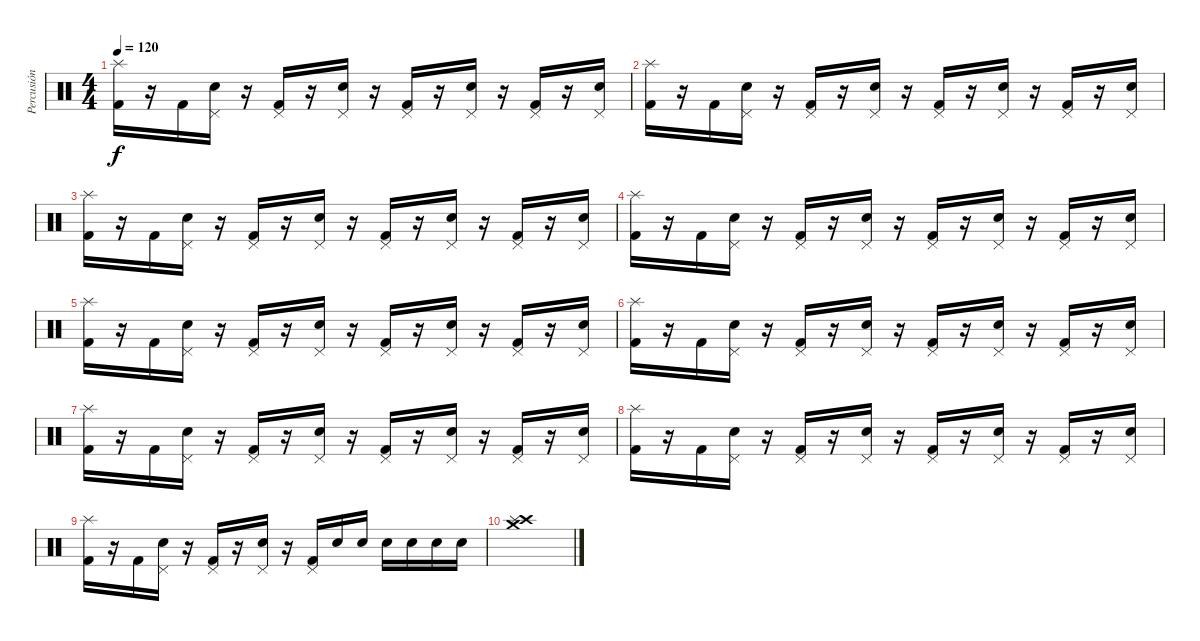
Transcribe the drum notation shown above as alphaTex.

\track ("Percusión" "Percusión") {instrument percussion}
\staff {score}
\articulation defaults
\ts (4 4)
\tempo 120
\clef neutral
\ks c
("Splash (hit)" "Kick (hit) 2").16{dy f} r.16 "Kick (hit) 2".16 ("Pedal Hi-Hat (hit)" "Snare (hit) 2").16 r.16 ("Pedal Hi-Hat (hit)" "Kick (hit) 2").16 r.16 ("Pedal Hi-Hat (hit)" "Snare (hit) 2").16 r.16 ("Pedal Hi-Hat (hit)" "Kick (hit) 2").16 r.16 ("Pedal Hi-Hat (hit)" "Snare (hit) 2").16 r.16 ("Pedal Hi-Hat (hit)" "Kick (hit) 2").16 r.16 ("Pedal Hi-Hat (hit)" "Snare (hit) 2").16 |
("Splash (hit)" "Kick (hit) 2").16 r.16 "Kick (hit) 2".16 ("Pedal Hi-Hat (hit)" "Snare (hit) 2").16 r.16 ("Pedal Hi-Hat (hit)" "Kick (hit) 2").16 r.16 ("Pedal Hi-Hat (hit)" "Snare (hit) 2").16 r.16 ("Pedal Hi-Hat (hit)" "Kick (hit) 2").16 r.16 ("Pedal Hi-Hat (hit)" "Snare (hit) 2").16 r.16 ("Pedal Hi-Hat (hit)" "Kick (hit) 2").16 r.16 ("Pedal Hi-Hat (hit)" "Snare (hit) 2").16 |
("Splash (hit)" "Kick (hit) 2").16 r.16 "Kick (hit) 2".16 ("Pedal Hi-Hat (hit)" "Snare (hit) 2").16 r.16 ("Pedal Hi-Hat (hit)" "Kick (hit) 2").16 r.16 ("Pedal Hi-Hat (hit)" "Snare (hit) 2").16 r.16 ("Pedal Hi-Hat (hit)" "Kick (hit) 2").16 r.16 ("Pedal Hi-Hat (hit)" "Snare (hit) 2").16 r.16 ("Pedal Hi-Hat (hit)" "Kick (hit) 2").16 r.16 ("Pedal Hi-Hat (hit)" "Snare (hit) 2").16 |
("Splash (hit)" "Kick (hit) 2").16 r.16 "Kick (hit) 2".16 ("Pedal Hi-Hat (hit)" "Snare (hit) 2").16 r.16 ("Pedal Hi-Hat (hit)" "Kick (hit) 2").16 r.16 ("Pedal Hi-Hat (hit)" "Snare (hit) 2").16 r.16 ("Pedal Hi-Hat (hit)" "Kick (hit) 2").16 r.16 ("Pedal Hi-Hat (hit)" "Snare (hit) 2").16 r.16 ("Pedal Hi-Hat (hit)" "Kick (hit) 2").16 r.16 ("Pedal Hi-Hat (hit)" "Snare (hit) 2").16 |
("Splash (hit)" "Kick (hit) 2").16 r.16 "Kick (hit) 2".16 ("Pedal Hi-Hat (hit)" "Snare (hit) 2").16 r.16 ("Pedal Hi-Hat (hit)" "Kick (hit) 2").16 r.16 ("Pedal Hi-Hat (hit)" "Snare (hit) 2").16 r.16 ("Pedal Hi-Hat (hit)" "Kick (hit) 2").16 r.16 ("Pedal Hi-Hat (hit)" "Snare (hit) 2").16 r.16 ("Pedal Hi-Hat (hit)" "Kick (hit) 2").16 r.16 ("Pedal Hi-Hat (hit)" "Snare (hit) 2").16 |
("Splash (hit)" "Kick (hit) 2").16 r.16 "Kick (hit) 2".16 ("Pedal Hi-Hat (hit)" "Snare (hit) 2").16 r.16 ("Pedal Hi-Hat (hit)" "Kick (hit) 2").16 r.16 ("Pedal Hi-Hat (hit)" "Snare (hit) 2").16 r.16 ("Pedal Hi-Hat (hit)" "Kick (hit) 2").16 r.16 ("Pedal Hi-Hat (hit)" "Snare (hit) 2").16 r.16 ("Pedal Hi-Hat (hit)" "Kick (hit) 2").16 r.16 ("Pedal Hi-Hat (hit)" "Snare (hit) 2").16 |
("Splash (hit)" "Kick (hit) 2").16 r.16 "Kick (hit) 2".16 ("Pedal Hi-Hat (hit)" "Snare (hit) 2").16 r.16 ("Pedal Hi-Hat (hit)" "Kick (hit) 2").16 r.16 ("Pedal Hi-Hat (hit)" "Snare (hit) 2").16 r.16 ("Pedal Hi-Hat (hit)" "Kick (hit) 2").16 r.16 ("Pedal Hi-Hat (hit)" "Snare (hit) 2").16 r.16 ("Pedal Hi-Hat (hit)" "Kick (hit) 2").16 r.16 ("Pedal Hi-Hat (hit)" "Snare (hit) 2").16 |
("Splash (hit)" "Kick (hit) 2").16 r.16 "Kick (hit) 2".16 ("Pedal Hi-Hat (hit)" "Snare (hit) 2").16 r.16 ("Pedal Hi-Hat (hit)" "Kick (hit) 2").16 r.16 ("Pedal Hi-Hat (hit)" "Snare (hit) 2").16 r.16 ("Pedal Hi-Hat (hit)" "Kick (hit) 2").16 r.16 ("Pedal Hi-Hat (hit)" "Snare (hit) 2").16 r.16 ("Pedal Hi-Hat (hit)" "Kick (hit) 2").16 r.16 ("Pedal Hi-Hat (hit)" "Snare (hit) 2").16 |
("Splash (hit)" "Kick (hit) 2").16 r.16 "Kick (hit) 2".16 ("Pedal Hi-Hat (hit)" "Snare (hit) 2").16 r.16 ("Pedal Hi-Hat (hit)" "Kick (hit) 2").16 r.16 ("Pedal Hi-Hat (hit)" "Snare (hit) 2").16 r.16 ("Pedal Hi-Hat (hit)" "Kick (hit) 2").16 "Snare (hit) 2".16 "Snare (hit) 2".16 "Snare (hit) 2".16 "Snare (hit) 2".16 "Snare (hit) 2".16 "Snare (hit) 2".16 |
("Crash high (hit)" "Crash medium (hit)" "Splash (hit)").1
